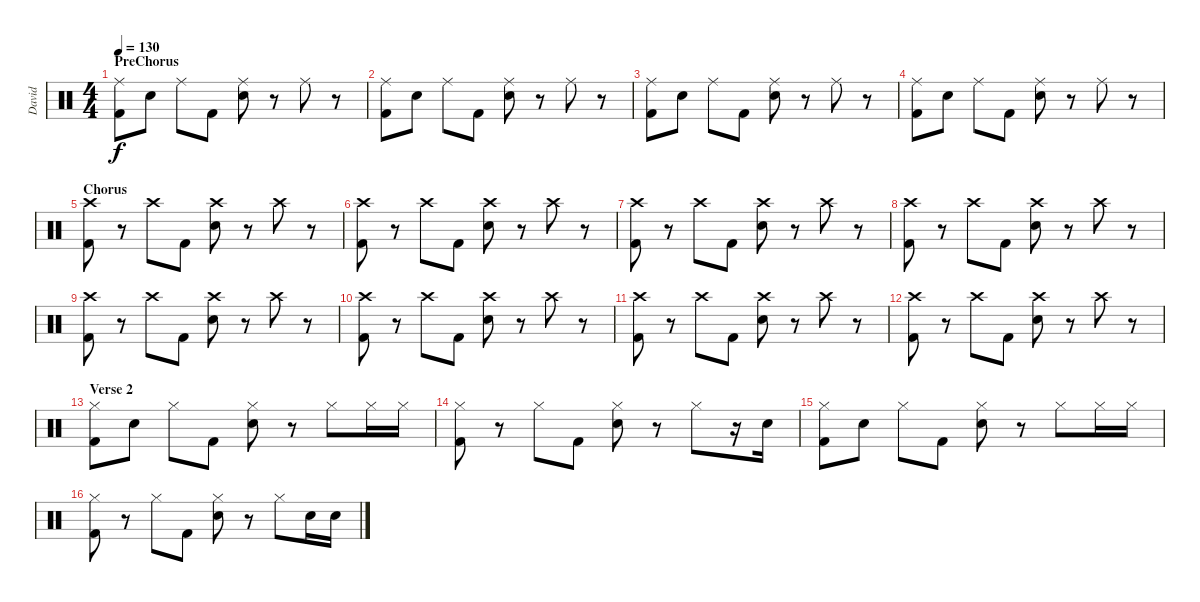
\track ("David" "David") {instrument percussion}
\staff {score}
\articulation defaults
\ts (4 4)
\section ("" "PreChorus")
\tempo 130
\clef neutral
\ks c
("Ride (middle)" "Kick (hit) 2").8{dy f} "Snare (hit) 2".8 "Ride (middle)".8 "Kick (hit) 2".8 ("Ride (middle)" "Snare (hit) 2").8 r.8 "Ride (middle)".8 r.8 |
("Ride (middle)" "Kick (hit) 2").8 "Snare (hit) 2".8 "Ride (middle)".8 "Kick (hit) 2".8 ("Ride (middle)" "Snare (hit) 2").8 r.8 "Ride (middle)".8 r.8 |
("Ride (middle)" "Kick (hit) 2").8 "Snare (hit) 2".8 "Ride (middle)".8 "Kick (hit) 2".8 ("Ride (middle)" "Snare (hit) 2").8 r.8 "Ride (middle)".8 r.8 |
("Ride (middle)" "Kick (hit) 2").8 "Snare (hit) 2".8 "Ride (middle)".8 "Kick (hit) 2".8 ("Ride (middle)" "Snare (hit) 2").8 r.8 "Ride (middle)".8 r.8 |
\section ("" "Chorus")
("Crash high (hit)" "Kick (hit) 2").8 r.8 "Crash high (hit)".8 "Kick (hit) 2".8 ("Crash high (hit)" "Snare (hit) 2").8 r.8 "Crash high (hit)".8 r.8 |
("Crash high (hit)" "Kick (hit) 2").8 r.8 "Crash high (hit)".8 "Kick (hit) 2".8 ("Crash high (hit)" "Snare (hit) 2").8 r.8 "Crash high (hit)".8 r.8 |
("Crash high (hit)" "Kick (hit) 2").8 r.8 "Crash high (hit)".8 "Kick (hit) 2".8 ("Crash high (hit)" "Snare (hit) 2").8 r.8 "Crash high (hit)".8 r.8 |
("Crash high (hit)" "Kick (hit) 2").8 r.8 "Crash high (hit)".8 "Kick (hit) 2".8 ("Crash high (hit)" "Snare (hit) 2").8 r.8 "Crash high (hit)".8 r.8 |
("Crash high (hit)" "Kick (hit) 2").8 r.8 "Crash high (hit)".8 "Kick (hit) 2".8 ("Crash high (hit)" "Snare (hit) 2").8 r.8 "Crash high (hit)".8 r.8 |
("Crash high (hit)" "Kick (hit) 2").8 r.8 "Crash high (hit)".8 "Kick (hit) 2".8 ("Crash high (hit)" "Snare (hit) 2").8 r.8 "Crash high (hit)".8 r.8 |
("Crash high (hit)" "Kick (hit) 2").8 r.8 "Crash high (hit)".8 "Kick (hit) 2".8 ("Crash high (hit)" "Snare (hit) 2").8 r.8 "Crash high (hit)".8 r.8 |
("Crash high (hit)" "Kick (hit) 2").8 r.8 "Crash high (hit)".8 "Kick (hit) 2".8 ("Crash high (hit)" "Snare (hit) 2").8 r.8 "Crash high (hit)".8 r.8 |
\section ("" "Verse 2")
("Hi-Hat (closed)" "Kick (hit) 2").8 "Snare (hit) 2".8 "Hi-Hat (closed)".8 "Kick (hit) 2".8 ("Hi-Hat (closed)" "Snare (hit) 2").8 r.8 "Hi-Hat (closed)".8 "Hi-Hat (closed)".16 "Hi-Hat (closed)".16 |
("Hi-Hat (closed)" "Kick (hit) 2").8 r.8 "Hi-Hat (closed)".8 "Kick (hit) 2".8 ("Hi-Hat (closed)" "Snare (hit) 2").8 r.8 "Hi-Hat (closed)".8 r.16 "Snare (hit) 2".16 |
("Hi-Hat (closed)" "Kick (hit) 2").8 "Snare (hit) 2".8 "Hi-Hat (closed)".8 "Kick (hit) 2".8 ("Hi-Hat (closed)" "Snare (hit) 2").8 r.8 "Hi-Hat (closed)".8 "Hi-Hat (closed)".16 "Hi-Hat (closed)".16 |
("Hi-Hat (closed)" "Kick (hit) 2").8 r.8 "Hi-Hat (closed)".8 "Kick (hit) 2".8 ("Hi-Hat (closed)" "Snare (hit) 2").8 r.8 "Hi-Hat (closed)".8 "Snare (hit) 2".16 "Snare (hit) 2".16
